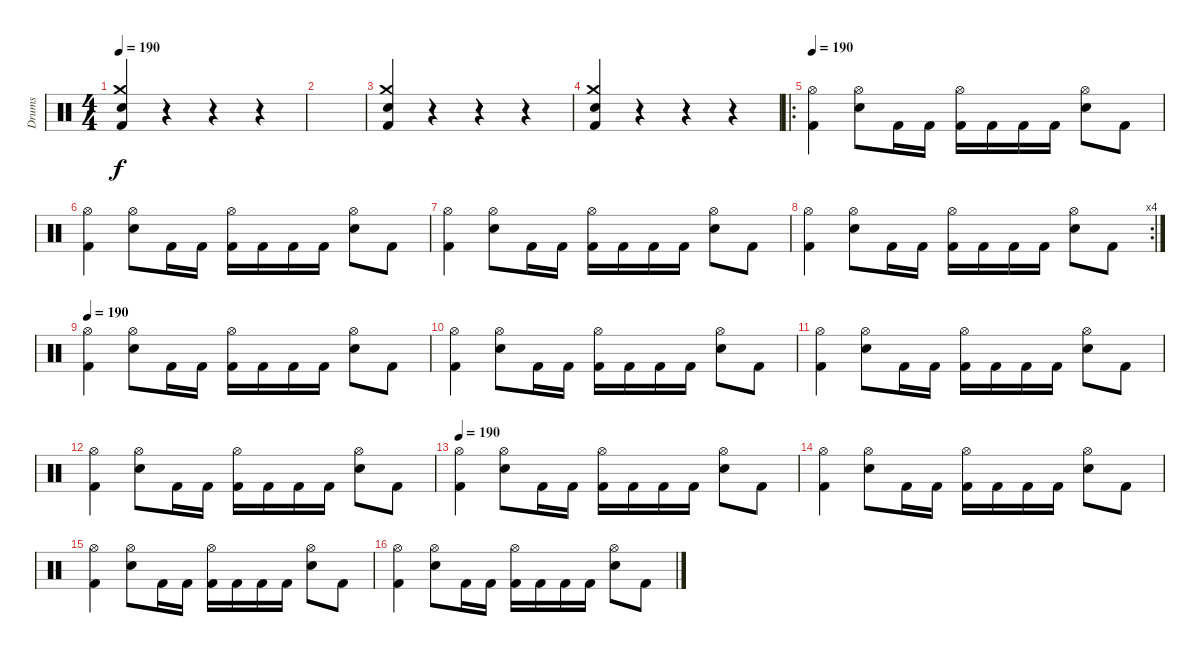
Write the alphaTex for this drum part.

\track ("Drums" "Drums") {instrument percussion}
\staff {score}
\articulation defaults
\ts (4 4)
\tempo 190
\clef neutral
\ks c
("Snare (hit) 2" "Crash medium (hit)" "Kick (hit) 2").4{dy f} r.4 r.4 r.4 |
|
("Snare (hit) 2" "Crash medium (hit)" "Kick (hit) 2").4 r.4 r.4 r.4 |
("Snare (hit) 2" "Crash medium (hit)" "Kick (hit) 2").4 r.4 r.4 r.4 |
\ro
\tempo 190
("Hi-Hat (open)" "Kick (hit) 2").4 ("Hi-Hat (open)" "Snare (hit) 2").8 "Kick (hit) 2".16 "Kick (hit) 2".16 ("Hi-Hat (open)" "Kick (hit) 2").16 "Kick (hit) 2".16 "Kick (hit) 2".16 "Kick (hit) 2".16 ("Hi-Hat (open)" "Snare (hit) 2").8 "Kick (hit) 2".8 |
("Hi-Hat (open)" "Kick (hit) 2").4 ("Hi-Hat (open)" "Snare (hit) 2").8 "Kick (hit) 2".16 "Kick (hit) 2".16 ("Hi-Hat (open)" "Kick (hit) 2").16 "Kick (hit) 2".16 "Kick (hit) 2".16 "Kick (hit) 2".16 ("Hi-Hat (open)" "Snare (hit) 2").8 "Kick (hit) 2".8 |
("Hi-Hat (open)" "Kick (hit) 2").4 ("Hi-Hat (open)" "Snare (hit) 2").8 "Kick (hit) 2".16 "Kick (hit) 2".16 ("Hi-Hat (open)" "Kick (hit) 2").16 "Kick (hit) 2".16 "Kick (hit) 2".16 "Kick (hit) 2".16 ("Hi-Hat (open)" "Snare (hit) 2").8 "Kick (hit) 2".8 |
\rc 4
("Hi-Hat (open)" "Kick (hit) 2").4 ("Hi-Hat (open)" "Snare (hit) 2").8 "Kick (hit) 2".16 "Kick (hit) 2".16 ("Hi-Hat (open)" "Kick (hit) 2").16 "Kick (hit) 2".16 "Kick (hit) 2".16 "Kick (hit) 2".16 ("Hi-Hat (open)" "Snare (hit) 2").8 "Kick (hit) 2".8 |
\tempo 190
("Hi-Hat (open)" "Kick (hit) 2").4 ("Hi-Hat (open)" "Snare (hit) 2").8 "Kick (hit) 2".16 "Kick (hit) 2".16 ("Hi-Hat (open)" "Kick (hit) 2").16 "Kick (hit) 2".16 "Kick (hit) 2".16 "Kick (hit) 2".16 ("Hi-Hat (open)" "Snare (hit) 2").8 "Kick (hit) 2".8 |
("Hi-Hat (open)" "Kick (hit) 2").4 ("Hi-Hat (open)" "Snare (hit) 2").8 "Kick (hit) 2".16 "Kick (hit) 2".16 ("Hi-Hat (open)" "Kick (hit) 2").16 "Kick (hit) 2".16 "Kick (hit) 2".16 "Kick (hit) 2".16 ("Hi-Hat (open)" "Snare (hit) 2").8 "Kick (hit) 2".8 |
("Hi-Hat (open)" "Kick (hit) 2").4 ("Hi-Hat (open)" "Snare (hit) 2").8 "Kick (hit) 2".16 "Kick (hit) 2".16 ("Hi-Hat (open)" "Kick (hit) 2").16 "Kick (hit) 2".16 "Kick (hit) 2".16 "Kick (hit) 2".16 ("Hi-Hat (open)" "Snare (hit) 2").8 "Kick (hit) 2".8 |
("Hi-Hat (open)" "Kick (hit) 2").4 ("Hi-Hat (open)" "Snare (hit) 2").8 "Kick (hit) 2".16 "Kick (hit) 2".16 ("Hi-Hat (open)" "Kick (hit) 2").16 "Kick (hit) 2".16 "Kick (hit) 2".16 "Kick (hit) 2".16 ("Hi-Hat (open)" "Snare (hit) 2").8 "Kick (hit) 2".8 |
\tempo 190
("Hi-Hat (open)" "Kick (hit) 2").4 ("Hi-Hat (open)" "Snare (hit) 2").8 "Kick (hit) 2".16 "Kick (hit) 2".16 ("Hi-Hat (open)" "Kick (hit) 2").16 "Kick (hit) 2".16 "Kick (hit) 2".16 "Kick (hit) 2".16 ("Hi-Hat (open)" "Snare (hit) 2").8 "Kick (hit) 2".8 |
("Hi-Hat (open)" "Kick (hit) 2").4 ("Hi-Hat (open)" "Snare (hit) 2").8 "Kick (hit) 2".16 "Kick (hit) 2".16 ("Hi-Hat (open)" "Kick (hit) 2").16 "Kick (hit) 2".16 "Kick (hit) 2".16 "Kick (hit) 2".16 ("Hi-Hat (open)" "Snare (hit) 2").8 "Kick (hit) 2".8 |
("Hi-Hat (open)" "Kick (hit) 2").4 ("Hi-Hat (open)" "Snare (hit) 2").8 "Kick (hit) 2".16 "Kick (hit) 2".16 ("Hi-Hat (open)" "Kick (hit) 2").16 "Kick (hit) 2".16 "Kick (hit) 2".16 "Kick (hit) 2".16 ("Hi-Hat (open)" "Snare (hit) 2").8 "Kick (hit) 2".8 |
("Hi-Hat (open)" "Kick (hit) 2").4 ("Hi-Hat (open)" "Snare (hit) 2").8 "Kick (hit) 2".16 "Kick (hit) 2".16 ("Hi-Hat (open)" "Kick (hit) 2").16 "Kick (hit) 2".16 "Kick (hit) 2".16 "Kick (hit) 2".16 ("Hi-Hat (open)" "Snare (hit) 2").8 "Kick (hit) 2".8
